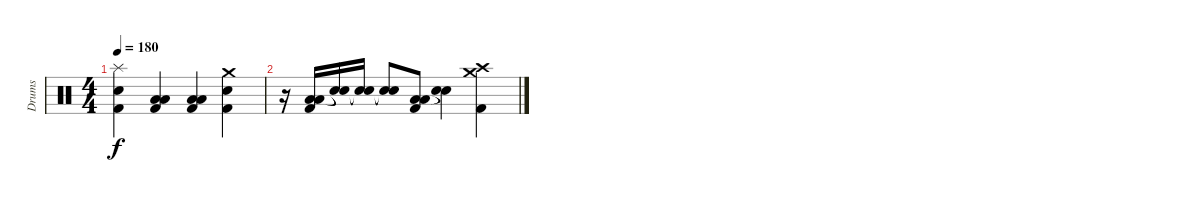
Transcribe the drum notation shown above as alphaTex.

\track ("Drums" "Drums") {instrument percussion}
\staff {score}
\articulation defaults
\ts (4 4)
\tempo 180
\clef neutral
\ks c
("Splash (hit)" "Snare (hit) 2" "Kick (hit) 2").4{dy f} ("Low Tom (hit)" "Low Floor Tom (hit)" "Kick (hit) 2").4 ("Low Tom (hit)" "Low Floor Tom (hit)" "Kick (hit) 2").4 ("Crash medium (hit)" "Snare (hit) 2" "Kick (hit) 2").4 |
r.16 ("Low Tom (hit)" "Low Floor Tom (hit)" "Kick (hit) 2").16 ("Snare (hit)"{t} "Snare (hit)"{t}).16 ("Snare (hit)"{t} "Snare (hit)"{t}).16 ("Snare (hit)"{t} "Snare (hit)"{t}).8 ("Low Tom (hit)" "Low Floor Tom (hit)" "Kick (hit) 2").8 ("Snare (hit)"{t} "Snare (hit)"{t}).4 ("Crash high (hit)" "Crash medium (hit)" "Kick (hit) 2").4
